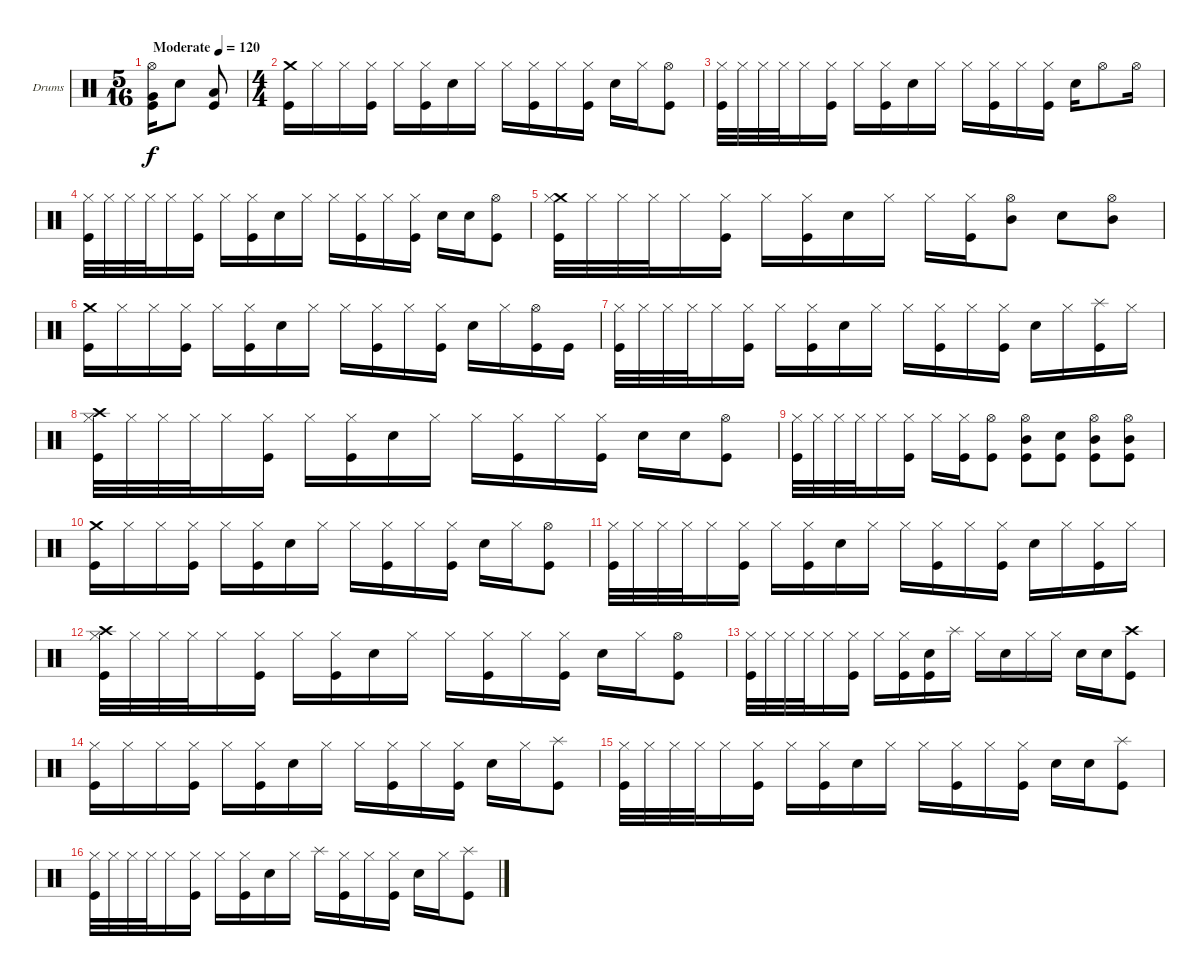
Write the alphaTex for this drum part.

\bracketExtendMode groupsimilarinstruments
\firstSystemTrackNameOrientation horizontal
\otherSystemsTrackNameOrientation horizontal
\track ("Drumkit" "Drums") {instrument percussion}
\staff {score}
\articulation defaults
\ts (5 16)
\tempo (120 "Moderate")
\clef neutral
\scale
0.391473
\ks c
("Hi-Hat (open)" "Very Low Tom (hit)" "Kick (hit)").16{dy f} "Snare (hit) 2".8 ("Low Tom (hit)" "Kick (hit)").8 |
\ts (4 4)
\scale
0.391473 ("Crash medium (hit)" "Kick (hit)").16 "Hi-Hat (closed)".16 "Hi-Hat (closed)".16 ("Hi-Hat (closed)" "Kick (hit)").16 "Hi-Hat (closed)".16 ("Hi-Hat (closed)" "Kick (hit)").16 "Snare (hit) 2".16 "Hi-Hat (closed)".16 "Hi-Hat (closed)".16 ("Hi-Hat (closed)" "Kick (hit)").16 "Hi-Hat (closed)".16 ("Hi-Hat (closed)" "Kick (hit)").16 "Snare (hit) 2".16 "Hi-Hat (closed)".16 ("Hi-Hat (open)" "Kick (hit)").8 |
\scale
0.217054 ("Hi-Hat (closed)" "Kick (hit)").32 "Hi-Hat (closed)".32 "Hi-Hat (closed)".32 "Hi-Hat (closed)".32 "Hi-Hat (closed)".16 ("Hi-Hat (closed)" "Kick (hit)").16 "Hi-Hat (closed)".16 ("Hi-Hat (closed)" "Kick (hit)").16 "Snare (hit) 2".16 "Hi-Hat (closed)".16 "Hi-Hat (closed)".16 ("Hi-Hat (closed)" "Kick (hit)").16 "Hi-Hat (closed)".16 ("Hi-Hat (closed)" "Kick (hit)").16 "Snare (hit) 2".16 "Hi-Hat (open)".8 "Hi-Hat (open)".16 |
\scale
0.333333 ("Hi-Hat (closed)" "Kick (hit)").32 "Hi-Hat (closed)".32 "Hi-Hat (closed)".32 "Hi-Hat (closed)".32 "Hi-Hat (closed)".16 ("Hi-Hat (closed)" "Kick (hit)").16 "Hi-Hat (closed)".16 ("Hi-Hat (closed)" "Kick (hit)").16 "Snare (hit) 2".16 "Hi-Hat (closed)".16 "Hi-Hat (closed)".16 ("Hi-Hat (closed)" "Kick (hit)").16 "Hi-Hat (closed)".16 ("Hi-Hat (closed)" "Kick (hit)").16 "Snare (hit) 2".16 "Snare (hit) 2".16 ("Hi-Hat (open)" "Kick (hit)").8 |
\scale
0.333333 ("Crash medium (hit)" "Hi-Hat (closed)" "Kick (hit)").32 "Hi-Hat (closed)".32 "Hi-Hat (closed)".32 "Hi-Hat (closed)".32 "Hi-Hat (closed)".16 ("Hi-Hat (closed)" "Kick (hit)").16 "Hi-Hat (closed)".16 ("Hi-Hat (closed)" "Kick (hit)").16 "Snare (hit) 2".16 "Hi-Hat (closed)".16 "Hi-Hat (closed)".16 ("Hi-Hat (closed)" "Kick (hit)").16 ("Hi-Hat (open)" "Mid Tom (hit)").8 "Snare (hit) 2".8 ("Hi-Hat (open)" "Mid Tom (hit)").8 |
\scale
0.333333 ("Crash medium (hit)" "Kick (hit)").16 "Hi-Hat (closed)".16 "Hi-Hat (closed)".16 ("Hi-Hat (closed)" "Kick (hit)").16 "Hi-Hat (closed)".16 ("Hi-Hat (closed)" "Kick (hit)").16 "Snare (hit) 2".16 "Hi-Hat (closed)".16 "Hi-Hat (closed)".16 ("Hi-Hat (closed)" "Kick (hit)").16 "Hi-Hat (closed)".16 ("Hi-Hat (closed)" "Kick (hit)").16 "Snare (hit) 2".16 "Hi-Hat (closed)".16 ("Hi-Hat (open)" "Kick (hit)").16 "Kick (hit)".16 |
\scale
0.333333 ("Hi-Hat (closed)" "Kick (hit)").32 "Hi-Hat (closed)".32 "Hi-Hat (closed)".32 "Hi-Hat (closed)".32 "Hi-Hat (closed)".16 ("Hi-Hat (closed)" "Kick (hit)").16 "Hi-Hat (closed)".16 ("Hi-Hat (closed)" "Kick (hit)").16 "Snare (hit) 2".16 "Hi-Hat (closed)".16 "Hi-Hat (closed)".16 ("Hi-Hat (closed)" "Kick (hit)").16 "Hi-Hat (closed)".16 ("Hi-Hat (closed)" "Kick (hit)").16 "Snare (hit) 2".16 "Hi-Hat (closed)".16 ("Splash (hit)" "Kick (hit)").16 "Hi-Hat (closed)".16 |
\scale
0.333333 ("Crash high (hit)" "Hi-Hat (closed)" "Kick (hit)").32 "Hi-Hat (closed)".32 "Hi-Hat (closed)".32 "Hi-Hat (closed)".32 "Hi-Hat (closed)".16 ("Hi-Hat (closed)" "Kick (hit)").16 "Hi-Hat (closed)".16 ("Hi-Hat (closed)" "Kick (hit)").16 "Snare (hit) 2".16 "Hi-Hat (closed)".16 "Hi-Hat (closed)".16 ("Hi-Hat (closed)" "Kick (hit)").16 "Hi-Hat (closed)".16 ("Hi-Hat (closed)" "Kick (hit)").16 "Snare (hit) 2".16 "Snare (hit) 2".16 ("Hi-Hat (open)" "Kick (hit)").8 |
\scale
0.333333 ("Hi-Hat (closed)" "Kick (hit)").32 "Hi-Hat (closed)".32 "Hi-Hat (closed)".32 "Hi-Hat (closed)".32 "Hi-Hat (closed)".16 ("Hi-Hat (closed)" "Kick (hit)").16 "Hi-Hat (closed)".16 ("Hi-Hat (closed)" "Kick (hit)").16 ("Hi-Hat (open)" "Kick (hit)").8 ("Hi-Hat (open)" "Mid Tom (hit)" "Kick (hit)").8 ("Snare (hit) 2" "Kick (hit)").8 ("Hi-Hat (open)" "Mid Tom (hit)" "Kick (hit)").8 ("Hi-Hat (open)" "Mid Tom (hit)" "Kick (hit)").8 |
\scale
0.333333 ("Crash medium (hit)" "Kick (hit)").16 "Hi-Hat (closed)".16 "Hi-Hat (closed)".16 ("Hi-Hat (closed)" "Kick (hit)").16 "Hi-Hat (closed)".16 ("Hi-Hat (closed)" "Kick (hit)").16 "Snare (hit) 2".16 "Hi-Hat (closed)".16 "Hi-Hat (closed)".16 ("Hi-Hat (closed)" "Kick (hit)").16 "Hi-Hat (closed)".16 ("Hi-Hat (closed)" "Kick (hit)").16 "Snare (hit) 2".16 "Hi-Hat (closed)".16 ("Hi-Hat (open)" "Kick (hit)").8 |
\scale
0.333333 ("Hi-Hat (closed)" "Kick (hit)").32 "Hi-Hat (closed)".32 "Hi-Hat (closed)".32 "Hi-Hat (closed)".32 "Hi-Hat (closed)".16 ("Hi-Hat (closed)" "Kick (hit)").16 "Hi-Hat (closed)".16 ("Hi-Hat (closed)" "Kick (hit)").16 "Snare (hit) 2".16 "Hi-Hat (closed)".16 "Hi-Hat (closed)".16 ("Hi-Hat (closed)" "Kick (hit)").16 "Hi-Hat (closed)".16 ("Hi-Hat (closed)" "Kick (hit)").16 "Snare (hit) 2".16 "Hi-Hat (closed)".16 ("Hi-Hat (closed)" "Kick (hit)").16 "Hi-Hat (closed)".16 |
\scale
0.333333 ("Crash high (hit)" "Hi-Hat (closed)" "Kick (hit)").32 "Hi-Hat (closed)".32 "Hi-Hat (closed)".32 "Hi-Hat (closed)".32 "Hi-Hat (closed)".16 ("Hi-Hat (closed)" "Kick (hit)").16 "Hi-Hat (closed)".16 ("Hi-Hat (closed)" "Kick (hit)").16 "Snare (hit) 2".16 "Hi-Hat (closed)".16 "Hi-Hat (closed)".16 ("Hi-Hat (closed)" "Kick (hit)").16 "Hi-Hat (closed)".16 ("Hi-Hat (closed)" "Kick (hit)").16 "Snare (hit) 2".16 "Hi-Hat (closed)".16 ("Hi-Hat (open)" "Kick (hit)").8 |
\scale
0.333333 ("Hi-Hat (closed)" "Kick (hit)").32 "Hi-Hat (closed)".32 "Hi-Hat (closed)".32 "Hi-Hat (closed)".32 "Hi-Hat (closed)".16 ("Hi-Hat (closed)" "Kick (hit)").16 "Hi-Hat (closed)".16 ("Hi-Hat (closed)" "Kick (hit)").16 ("Snare (hit) 2" "Kick (hit)").16 "Splash (hit)".16 "Hi-Hat (closed)".16 "Snare (hit) 2".16 "Hi-Hat (closed)".16 "Hi-Hat (closed)".16 "Snare (hit) 2".16 "Snare (hit) 2".16 ("Crash high (hit)" "Kick (hit)").8 |
\scale
0.333333 ("Hi-Hat (closed)" "Kick (hit)").16 "Hi-Hat (closed)".16 "Hi-Hat (closed)".16 ("Hi-Hat (closed)" "Kick (hit)").16 "Hi-Hat (closed)".16 ("Hi-Hat (closed)" "Kick (hit)").16 "Snare (hit) 2".16 "Hi-Hat (closed)".16 "Hi-Hat (closed)".16 ("Hi-Hat (closed)" "Kick (hit)").16 "Hi-Hat (closed)".16 ("Hi-Hat (closed)" "Kick (hit)").16 "Snare (hit) 2".16 "Hi-Hat (closed)".16 ("Splash (hit)" "Kick (hit)").8 |
\scale
0.333333 ("Hi-Hat (closed)" "Kick (hit)").32 "Hi-Hat (closed)".32 "Hi-Hat (closed)".32 "Hi-Hat (closed)".32 "Hi-Hat (closed)".16 ("Hi-Hat (closed)" "Kick (hit)").16 "Hi-Hat (closed)".16 ("Hi-Hat (closed)" "Kick (hit)").16 "Snare (hit) 2".16 "Hi-Hat (closed)".16 "Hi-Hat (closed)".16 ("Hi-Hat (closed)" "Kick (hit)").16 "Hi-Hat (closed)".16 ("Hi-Hat (closed)" "Kick (hit)").16 "Snare (hit) 2".16 "Snare (hit) 2".16 ("Splash (hit)" "Kick (hit)").8 |
\scale
0.333333 ("Hi-Hat (closed)" "Kick (hit)").32 "Hi-Hat (closed)".32 "Hi-Hat (closed)".32 "Hi-Hat (closed)".32 "Hi-Hat (closed)".16 ("Hi-Hat (closed)" "Kick (hit)").16 "Hi-Hat (closed)".16 ("Hi-Hat (closed)" "Kick (hit)").16 "Snare (hit) 2".16 "Hi-Hat (closed)".16 "Splash (hit)".16 ("Hi-Hat (closed)" "Kick (hit)").16 "Hi-Hat (closed)".16 ("Hi-Hat (closed)" "Kick (hit)").16 "Snare (hit) 2".16 "Hi-Hat (closed)".16 ("Splash (hit)" "Kick (hit)").8
